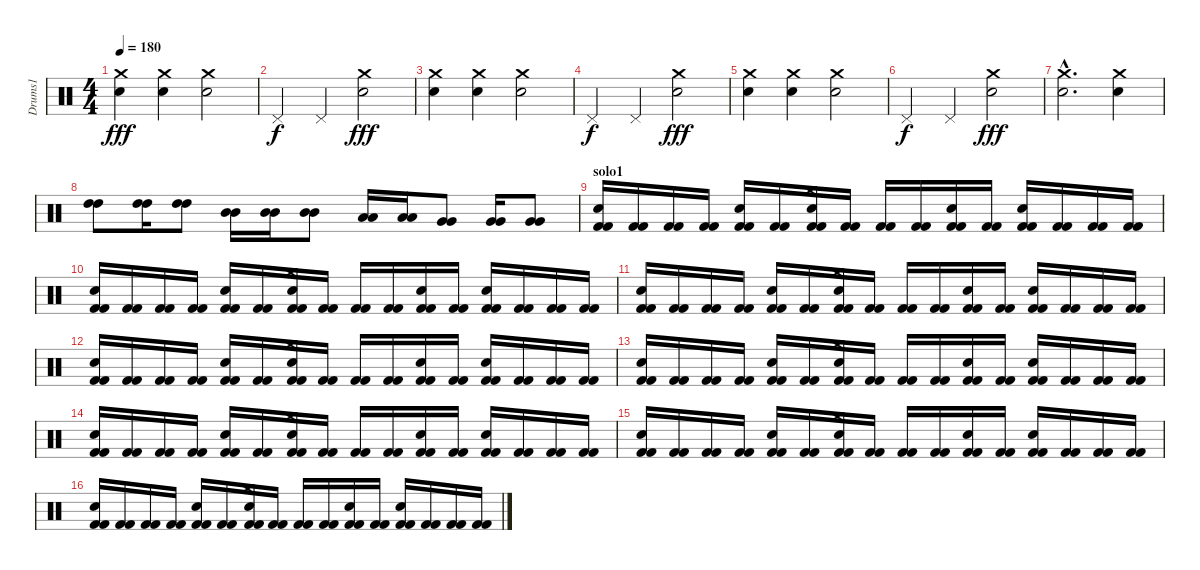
\track ("Drums1" "Drums1") {instrument percussion}
\staff {score}
\articulation defaults
\ts (4 4)
\tempo 180
\clef neutral
\ks c
("Electric Snare (hit)" "Crash medium (hit)").4{dy fff} ("Electric Snare (hit)" "Crash medium (hit)").4 ("Electric Snare (hit)" "Crash medium (hit)").2 |
"Pedal Hi-Hat (hit)".4{dy f} "Pedal Hi-Hat (hit)".4 ("Electric Snare (hit)" "Crash medium (hit)").2{dy fff} |
("Electric Snare (hit)" "Crash medium (hit)").4 ("Electric Snare (hit)" "Crash medium (hit)").4 ("Electric Snare (hit)" "Crash medium (hit)").2 |
"Pedal Hi-Hat (hit)".4{dy f} "Pedal Hi-Hat (hit)".4 ("Electric Snare (hit)" "Crash medium (hit)").2{dy fff} |
("Electric Snare (hit)" "Crash medium (hit)").4 ("Electric Snare (hit)" "Crash medium (hit)").4 ("Electric Snare (hit)" "Crash medium (hit)").2 |
"Pedal Hi-Hat (hit)".4{dy f} "Pedal Hi-Hat (hit)".4 ("Electric Snare (hit)" "Crash medium (hit)").2{dy fff} |
("Electric Snare (hit)"{hac} "Crash medium (hit)"{hac}).2{d} ("Electric Snare (hit)" "Crash medium (hit)").4 |
("High Tom (hit)" "High Tom (hit)").8 ("High Tom (hit)" "High Tom (hit)").16 ("High Tom (hit)" "High Tom (hit)").8 ("Mid Tom (hit)" "Mid Tom (hit)").16 ("Mid Tom (hit)" "Mid Tom (hit)").16 ("Mid Tom (hit)" "Mid Tom (hit)").8 ("Low Tom (hit)" "Low Tom (hit)").16 ("Low Tom (hit)" "Low Tom (hit)").16 ("Very Low Tom (hit)" "Very Low Tom (hit)").8 ("Very Low Tom (hit)" "Very Low Tom (hit)").16 ("Very Low Tom (hit)" "Very Low Tom (hit)").8 |
\section ("" "solo1")
("Electric Snare (hit)" "Kick (hit) 2" "Kick (hit) 2").16 ("Kick (hit) 2" "Kick (hit) 2").16 ("Kick (hit) 2" "Kick (hit) 2").16 ("Kick (hit) 2" "Kick (hit) 2").16 ("Electric Snare (hit)" "Kick (hit) 2" "Kick (hit) 2").16 ("Kick (hit) 2" "Kick (hit) 2").16 ("Crash medium (hit)" "Electric Snare (hit)" "Kick (hit) 2" "Kick (hit) 2").16 ("Kick (hit) 2" "Kick (hit) 2").16 ("Kick (hit) 2" "Kick (hit) 2").16 ("Kick (hit) 2" "Kick (hit) 2").16 ("Electric Snare (hit)" "Kick (hit) 2" "Kick (hit) 2").16 ("Kick (hit) 2" "Kick (hit) 2").16 ("Electric Snare (hit)" "Kick (hit) 2" "Kick (hit) 2").16 ("Kick (hit) 2" "Kick (hit) 2").16 ("Kick (hit) 2" "Kick (hit) 2").16 ("Kick (hit) 2" "Kick (hit) 2").16 |
("Electric Snare (hit)" "Kick (hit) 2" "Kick (hit) 2").16 ("Kick (hit) 2" "Kick (hit) 2").16 ("Kick (hit) 2" "Kick (hit) 2").16 ("Kick (hit) 2" "Kick (hit) 2").16 ("Electric Snare (hit)" "Kick (hit) 2" "Kick (hit) 2").16 ("Kick (hit) 2" "Kick (hit) 2").16 ("Crash medium (hit)" "Electric Snare (hit)" "Kick (hit) 2" "Kick (hit) 2").16 ("Kick (hit) 2" "Kick (hit) 2").16 ("Kick (hit) 2" "Kick (hit) 2").16 ("Kick (hit) 2" "Kick (hit) 2").16 ("Electric Snare (hit)" "Kick (hit) 2" "Kick (hit) 2").16 ("Kick (hit) 2" "Kick (hit) 2").16 ("Electric Snare (hit)" "Kick (hit) 2" "Kick (hit) 2").16 ("Kick (hit) 2" "Kick (hit) 2").16 ("Kick (hit) 2" "Kick (hit) 2").16 ("Kick (hit) 2" "Kick (hit) 2").16 |
("Electric Snare (hit)" "Kick (hit) 2" "Kick (hit) 2").16 ("Kick (hit) 2" "Kick (hit) 2").16 ("Kick (hit) 2" "Kick (hit) 2").16 ("Kick (hit) 2" "Kick (hit) 2").16 ("Electric Snare (hit)" "Kick (hit) 2" "Kick (hit) 2").16 ("Kick (hit) 2" "Kick (hit) 2").16 ("Crash medium (hit)" "Electric Snare (hit)" "Kick (hit) 2" "Kick (hit) 2").16 ("Kick (hit) 2" "Kick (hit) 2").16 ("Kick (hit) 2" "Kick (hit) 2").16 ("Kick (hit) 2" "Kick (hit) 2").16 ("Electric Snare (hit)" "Kick (hit) 2" "Kick (hit) 2").16 ("Kick (hit) 2" "Kick (hit) 2").16 ("Electric Snare (hit)" "Kick (hit) 2" "Kick (hit) 2").16 ("Kick (hit) 2" "Kick (hit) 2").16 ("Kick (hit) 2" "Kick (hit) 2").16 ("Kick (hit) 2" "Kick (hit) 2").16 |
("Electric Snare (hit)" "Kick (hit) 2" "Kick (hit) 2").16 ("Kick (hit) 2" "Kick (hit) 2").16 ("Kick (hit) 2" "Kick (hit) 2").16 ("Kick (hit) 2" "Kick (hit) 2").16 ("Electric Snare (hit)" "Kick (hit) 2" "Kick (hit) 2").16 ("Kick (hit) 2" "Kick (hit) 2").16 ("Crash medium (hit)" "Electric Snare (hit)" "Kick (hit) 2" "Kick (hit) 2").16 ("Kick (hit) 2" "Kick (hit) 2").16 ("Kick (hit) 2" "Kick (hit) 2").16 ("Kick (hit) 2" "Kick (hit) 2").16 ("Electric Snare (hit)" "Kick (hit) 2" "Kick (hit) 2").16 ("Kick (hit) 2" "Kick (hit) 2").16 ("Electric Snare (hit)" "Kick (hit) 2" "Kick (hit) 2").16 ("Kick (hit) 2" "Kick (hit) 2").16 ("Kick (hit) 2" "Kick (hit) 2").16 ("Kick (hit) 2" "Kick (hit) 2").16 |
("Electric Snare (hit)" "Kick (hit) 2" "Kick (hit) 2").16 ("Kick (hit) 2" "Kick (hit) 2").16 ("Kick (hit) 2" "Kick (hit) 2").16 ("Kick (hit) 2" "Kick (hit) 2").16 ("Electric Snare (hit)" "Kick (hit) 2" "Kick (hit) 2").16 ("Kick (hit) 2" "Kick (hit) 2").16 ("Crash medium (hit)" "Electric Snare (hit)" "Kick (hit) 2" "Kick (hit) 2").16 ("Kick (hit) 2" "Kick (hit) 2").16 ("Kick (hit) 2" "Kick (hit) 2").16 ("Kick (hit) 2" "Kick (hit) 2").16 ("Electric Snare (hit)" "Kick (hit) 2" "Kick (hit) 2").16 ("Kick (hit) 2" "Kick (hit) 2").16 ("Electric Snare (hit)" "Kick (hit) 2" "Kick (hit) 2").16 ("Kick (hit) 2" "Kick (hit) 2").16 ("Kick (hit) 2" "Kick (hit) 2").16 ("Kick (hit) 2" "Kick (hit) 2").16 |
("Electric Snare (hit)" "Kick (hit) 2" "Kick (hit) 2").16 ("Kick (hit) 2" "Kick (hit) 2").16 ("Kick (hit) 2" "Kick (hit) 2").16 ("Kick (hit) 2" "Kick (hit) 2").16 ("Electric Snare (hit)" "Kick (hit) 2" "Kick (hit) 2").16 ("Kick (hit) 2" "Kick (hit) 2").16 ("Crash medium (hit)" "Electric Snare (hit)" "Kick (hit) 2" "Kick (hit) 2").16 ("Kick (hit) 2" "Kick (hit) 2").16 ("Kick (hit) 2" "Kick (hit) 2").16 ("Kick (hit) 2" "Kick (hit) 2").16 ("Electric Snare (hit)" "Kick (hit) 2" "Kick (hit) 2").16 ("Kick (hit) 2" "Kick (hit) 2").16 ("Electric Snare (hit)" "Kick (hit) 2" "Kick (hit) 2").16 ("Kick (hit) 2" "Kick (hit) 2").16 ("Kick (hit) 2" "Kick (hit) 2").16 ("Kick (hit) 2" "Kick (hit) 2").16 |
("Electric Snare (hit)" "Kick (hit) 2" "Kick (hit) 2").16 ("Kick (hit) 2" "Kick (hit) 2").16 ("Kick (hit) 2" "Kick (hit) 2").16 ("Kick (hit) 2" "Kick (hit) 2").16 ("Electric Snare (hit)" "Kick (hit) 2" "Kick (hit) 2").16 ("Kick (hit) 2" "Kick (hit) 2").16 ("Crash medium (hit)" "Electric Snare (hit)" "Kick (hit) 2" "Kick (hit) 2").16 ("Kick (hit) 2" "Kick (hit) 2").16 ("Kick (hit) 2" "Kick (hit) 2").16 ("Kick (hit) 2" "Kick (hit) 2").16 ("Electric Snare (hit)" "Kick (hit) 2" "Kick (hit) 2").16 ("Kick (hit) 2" "Kick (hit) 2").16 ("Electric Snare (hit)" "Kick (hit) 2" "Kick (hit) 2").16 ("Kick (hit) 2" "Kick (hit) 2").16 ("Kick (hit) 2" "Kick (hit) 2").16 ("Kick (hit) 2" "Kick (hit) 2").16 |
("Electric Snare (hit)" "Kick (hit) 2" "Kick (hit) 2").16 ("Kick (hit) 2" "Kick (hit) 2").16 ("Kick (hit) 2" "Kick (hit) 2").16 ("Kick (hit) 2" "Kick (hit) 2").16 ("Electric Snare (hit)" "Kick (hit) 2" "Kick (hit) 2").16 ("Kick (hit) 2" "Kick (hit) 2").16 ("Crash medium (hit)" "Electric Snare (hit)" "Kick (hit) 2" "Kick (hit) 2").16 ("Kick (hit) 2" "Kick (hit) 2").16 ("Kick (hit) 2" "Kick (hit) 2").16 ("Kick (hit) 2" "Kick (hit) 2").16 ("Electric Snare (hit)" "Kick (hit) 2" "Kick (hit) 2").16 ("Kick (hit) 2" "Kick (hit) 2").16 ("Electric Snare (hit)" "Kick (hit) 2" "Kick (hit) 2").16 ("Kick (hit) 2" "Kick (hit) 2").16 ("Kick (hit) 2" "Kick (hit) 2").16 ("Kick (hit) 2" "Kick (hit) 2").16
